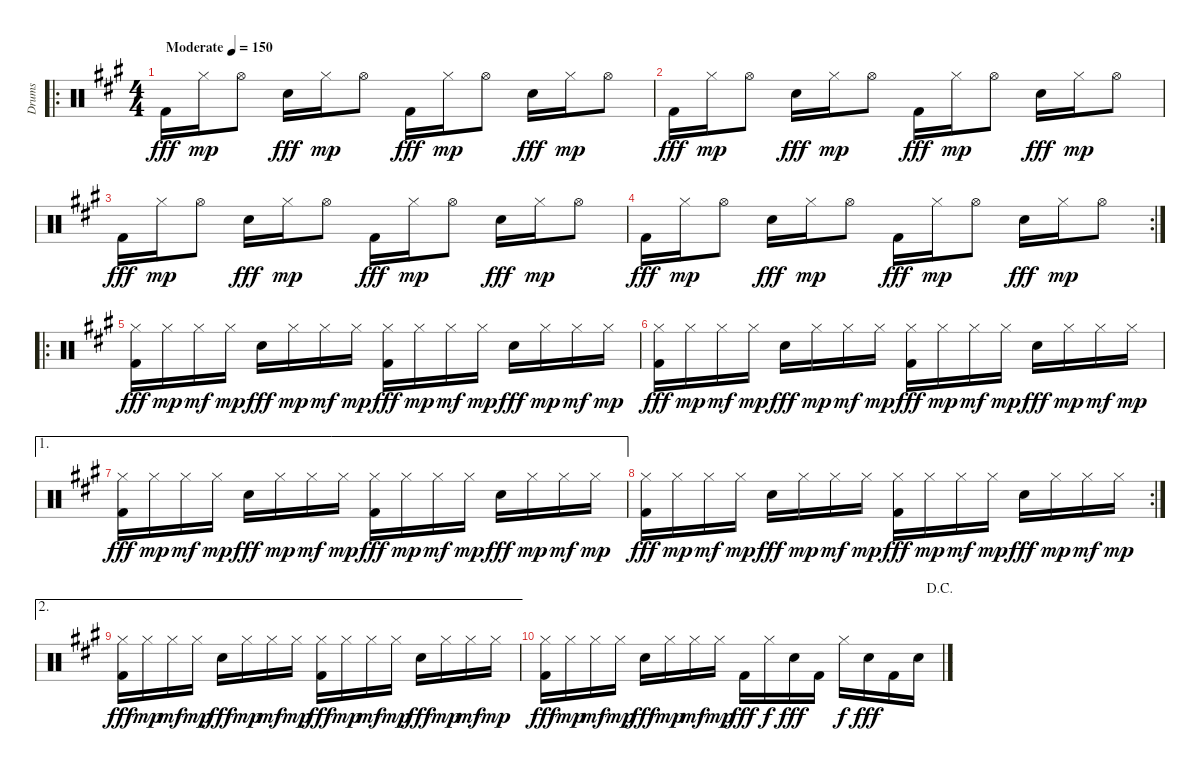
\track ("Drums" "Drums") {instrument percussion}
\staff {score}
\articulation defaults
\ro
\ts (4 4)
\tempo (150 "Moderate")
\clef neutral
\ks f#minor "Kick (hit) 2".16{dy fff} "Hi-Hat (closed)".16{dy mp} "Hi-Hat (open)".8 "Electric Snare (hit)".16{dy fff} "Hi-Hat (closed)".16{dy mp} "Hi-Hat (open)".8 "Kick (hit) 2".16{dy fff} "Hi-Hat (closed)".16{dy mp} "Hi-Hat (open)".8 "Electric Snare (hit)".16{dy fff} "Hi-Hat (closed)".16{dy mp} "Hi-Hat (open)".8
|
"Kick (hit) 2".16{dy fff} "Hi-Hat (closed)".16{dy mp} "Hi-Hat (open)".8 "Electric Snare (hit)".16{dy fff} "Hi-Hat (closed)".16{dy mp} "Hi-Hat (open)".8 "Kick (hit) 2".16{dy fff} "Hi-Hat (closed)".16{dy mp} "Hi-Hat (open)".8 "Electric Snare (hit)".16{dy fff} "Hi-Hat (closed)".16{dy mp} "Hi-Hat (open)".8 |
"Kick (hit) 2".16{dy fff} "Hi-Hat (closed)".16{dy mp} "Hi-Hat (open)".8 "Electric Snare (hit)".16{dy fff} "Hi-Hat (closed)".16{dy mp} "Hi-Hat (open)".8 "Kick (hit) 2".16{dy fff} "Hi-Hat (closed)".16{dy mp} "Hi-Hat (open)".8 "Electric Snare (hit)".16{dy fff} "Hi-Hat (closed)".16{dy mp} "Hi-Hat (open)".8 |
\rc 2 "Kick (hit) 2".16{dy fff} "Hi-Hat (closed)".16{dy mp} "Hi-Hat (open)".8 "Electric Snare (hit)".16{dy fff} "Hi-Hat (closed)".16{dy mp} "Hi-Hat (open)".8 "Kick (hit) 2".16{dy fff} "Hi-Hat (closed)".16{dy mp} "Hi-Hat (open)".8 "Electric Snare (hit)".16{dy fff} "Hi-Hat (closed)".16{dy mp} "Hi-Hat (open)".8
|
\ro
("Hi-Hat (closed)" "Kick (hit) 2").16{dy fff} "Hi-Hat (closed)".16{dy mp} "Hi-Hat (closed)".16{dy mf} "Hi-Hat (closed)".16{dy mp} "Electric Snare (hit)".16{dy fff} "Hi-Hat (closed)".16{dy mp} "Hi-Hat (closed)".16{dy mf} "Hi-Hat (closed)".16{dy mp} ("Hi-Hat (closed)" "Kick (hit) 2").16{dy fff} "Hi-Hat (closed)".16{dy mp} "Hi-Hat (closed)".16{dy mf} "Hi-Hat (closed)".16{dy mp} "Electric Snare (hit)".16{dy fff} "Hi-Hat (closed)".16{dy mp} "Hi-Hat (closed)".16{dy mf} "Hi-Hat (closed)".16{dy mp} |
("Hi-Hat (closed)" "Kick (hit) 2").16{dy fff} "Hi-Hat (closed)".16{dy mp} "Hi-Hat (closed)".16{dy mf} "Hi-Hat (closed)".16{dy mp} "Electric Snare (hit)".16{dy fff} "Hi-Hat (closed)".16{dy mp} "Hi-Hat (closed)".16{dy mf} "Hi-Hat (closed)".16{dy mp} ("Hi-Hat (closed)" "Kick (hit) 2").16{dy fff} "Hi-Hat (closed)".16{dy mp} "Hi-Hat (closed)".16{dy mf} "Hi-Hat (closed)".16{dy mp} "Electric Snare (hit)".16{dy fff} "Hi-Hat (closed)".16{dy mp} "Hi-Hat (closed)".16{dy mf} "Hi-Hat (closed)".16{dy mp} |
\ae 1
("Hi-Hat (closed)" "Kick (hit) 2").16{dy fff} "Hi-Hat (closed)".16{dy mp} "Hi-Hat (closed)".16{dy mf} "Hi-Hat (closed)".16{dy mp} "Electric Snare (hit)".16{dy fff} "Hi-Hat (closed)".16{dy mp} "Hi-Hat (closed)".16{dy mf} "Hi-Hat (closed)".16{dy mp} ("Hi-Hat (closed)" "Kick (hit) 2").16{dy fff} "Hi-Hat (closed)".16{dy mp} "Hi-Hat (closed)".16{dy mf} "Hi-Hat (closed)".16{dy mp} "Electric Snare (hit)".16{dy fff} "Hi-Hat (closed)".16{dy mp} "Hi-Hat (closed)".16{dy mf} "Hi-Hat (closed)".16{dy mp} |
\rc 2
("Hi-Hat (closed)" "Kick (hit) 2").16{dy fff} "Hi-Hat (closed)".16{dy mp} "Hi-Hat (closed)".16{dy mf} "Hi-Hat (closed)".16{dy mp} "Electric Snare (hit)".16{dy fff} "Hi-Hat (closed)".16{dy mp} "Hi-Hat (closed)".16{dy mf} "Hi-Hat (closed)".16{dy mp} ("Hi-Hat (closed)" "Kick (hit) 2").16{dy fff} "Hi-Hat (closed)".16{dy mp} "Hi-Hat (closed)".16{dy mf} "Hi-Hat (closed)".16{dy mp} "Electric Snare (hit)".16{dy fff} "Hi-Hat (closed)".16{dy mp} "Hi-Hat (closed)".16{dy mf} "Hi-Hat (closed)".16{dy mp} |
\ae 2
("Hi-Hat (closed)" "Kick (hit) 2").16{dy fff} "Hi-Hat (closed)".16{dy mp} "Hi-Hat (closed)".16{dy mf} "Hi-Hat (closed)".16{dy mp} "Electric Snare (hit)".16{dy fff} "Hi-Hat (closed)".16{dy mp} "Hi-Hat (closed)".16{dy mf} "Hi-Hat (closed)".16{dy mp} ("Hi-Hat (closed)" "Kick (hit) 2").16{dy fff} "Hi-Hat (closed)".16{dy mp} "Hi-Hat (closed)".16{dy mf} "Hi-Hat (closed)".16{dy mp} "Electric Snare (hit)".16{dy fff} "Hi-Hat (closed)".16{dy mp} "Hi-Hat (closed)".16{dy mf} "Hi-Hat (closed)".16{dy mp} |
\jump dacapo
("Hi-Hat (closed)" "Kick (hit) 2").16{dy fff} "Hi-Hat (closed)".16{dy mp} "Hi-Hat (closed)".16{dy mf} "Hi-Hat (closed)".16{dy mp} "Electric Snare (hit)".16{dy fff} "Hi-Hat (closed)".16{dy mp} "Hi-Hat (closed)".16{dy mf} "Hi-Hat (closed)".16{dy mp} "Kick (hit) 2".16{dy fff} "Hi-Hat (closed)".16{dy f} "Electric Snare (hit)".16{dy fff} "Kick (hit) 2".16 "Hi-Hat (closed)".16{dy f} "Electric Snare (hit)".16{dy fff} "Kick (hit) 2".16 "Electric Snare (hit)".16
